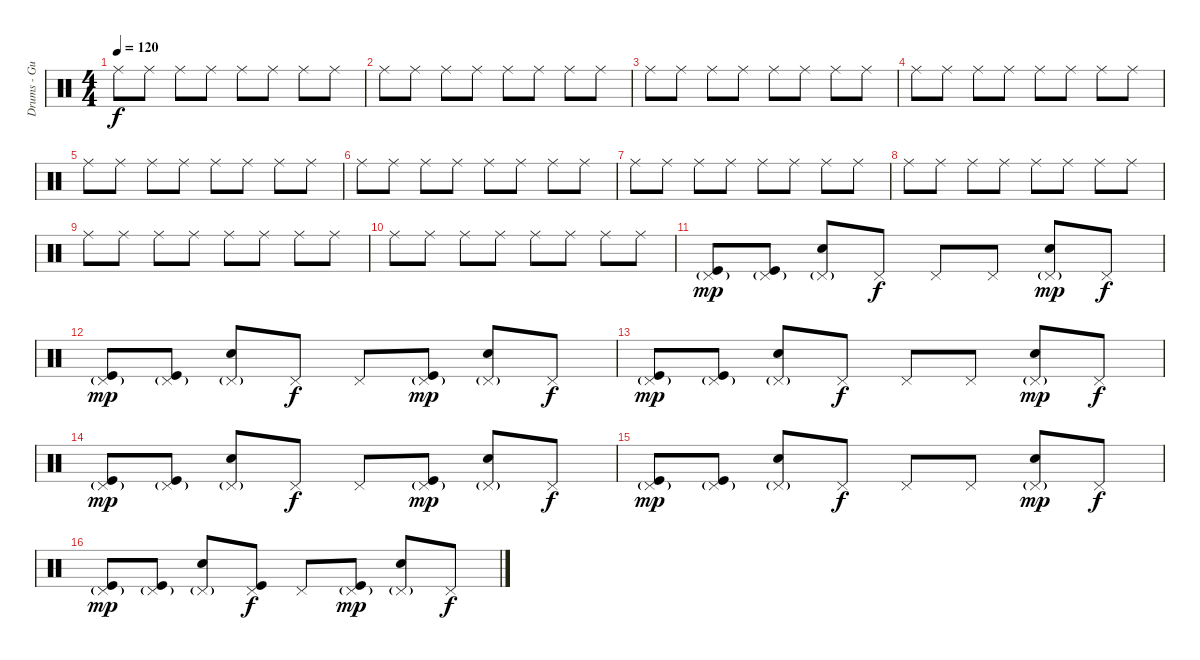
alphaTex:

\track ("Drums - Gustav" "Drums - Gu") {instrument percussion}
\staff {score}
\articulation defaults
\ts (4 4)
\tempo 120
\clef neutral
\ks c "Ride (middle)".8{dy f} "Ride (middle)".8 "Ride (middle)".8 "Ride (middle)".8 "Ride (middle)".8 "Ride (middle)".8 "Ride (middle)".8 "Ride (middle)".8
|
"Ride (middle)".8 "Ride (middle)".8 "Ride (middle)".8 "Ride (middle)".8 "Ride (middle)".8 "Ride (middle)".8 "Ride (middle)".8 "Ride (middle)".8 |
"Ride (middle)".8 "Ride (middle)".8 "Ride (middle)".8 "Ride (middle)".8 "Ride (middle)".8 "Ride (middle)".8 "Ride (middle)".8 "Ride (middle)".8 |
"Ride (middle)".8 "Ride (middle)".8 "Ride (middle)".8 "Ride (middle)".8 "Ride (middle)".8 "Ride (middle)".8 "Ride (middle)".8 "Ride (middle)".8 |
"Ride (middle)".8 "Ride (middle)".8 "Ride (middle)".8 "Ride (middle)".8 "Ride (middle)".8 "Ride (middle)".8 "Ride (middle)".8 "Ride (middle)".8 |
"Ride (middle)".8 "Ride (middle)".8 "Ride (middle)".8 "Ride (middle)".8 "Ride (middle)".8 "Ride (middle)".8 "Ride (middle)".8 "Ride (middle)".8 |
"Ride (middle)".8 "Ride (middle)".8 "Ride (middle)".8 "Ride (middle)".8 "Ride (middle)".8 "Ride (middle)".8 "Ride (middle)".8 "Ride (middle)".8 |
"Ride (middle)".8 "Ride (middle)".8 "Ride (middle)".8 "Ride (middle)".8 "Ride (middle)".8 "Ride (middle)".8 "Ride (middle)".8 "Ride (middle)".8 |
"Ride (middle)".8 "Ride (middle)".8 "Ride (middle)".8 "Ride (middle)".8 "Ride (middle)".8 "Ride (middle)".8 "Ride (middle)".8 "Ride (middle)".8 |
"Ride (middle)".8 "Ride (middle)".8 "Ride (middle)".8 "Ride (middle)".8 "Ride (middle)".8 "Ride (middle)".8 "Ride (middle)".8 "Ride (middle)".8 |
("Kick (hit)" "Pedal Hi-Hat (hit)"{g}).8{dy mp volume 11} ("Kick (hit)" "Pedal Hi-Hat (hit)"{g}).8 ("Pedal Hi-Hat (hit)"{g} "Snare (hit) 2").8 "Pedal Hi-Hat (hit)".8{dy f} "Pedal Hi-Hat (hit)".8 "Pedal Hi-Hat (hit)".8 ("Pedal Hi-Hat (hit)"{g} "Snare (hit) 2").8{dy mp} "Pedal Hi-Hat (hit)".8{dy f} |
("Kick (hit)" "Pedal Hi-Hat (hit)"{g}).8{dy mp} ("Kick (hit)" "Pedal Hi-Hat (hit)"{g}).8 ("Pedal Hi-Hat (hit)"{g} "Snare (hit) 2").8 "Pedal Hi-Hat (hit)".8{dy f} "Pedal Hi-Hat (hit)".8 ("Kick (hit)" "Pedal Hi-Hat (hit)"{g}).8{dy mp} ("Pedal Hi-Hat (hit)"{g} "Snare (hit) 2").8 "Pedal Hi-Hat (hit)".8{dy f} |
("Kick (hit)" "Pedal Hi-Hat (hit)"{g}).8{dy mp} ("Kick (hit)" "Pedal Hi-Hat (hit)"{g}).8 ("Pedal Hi-Hat (hit)"{g} "Snare (hit) 2").8 "Pedal Hi-Hat (hit)".8{dy f} "Pedal Hi-Hat (hit)".8 "Pedal Hi-Hat (hit)".8 ("Pedal Hi-Hat (hit)"{g} "Snare (hit) 2").8{dy mp} "Pedal Hi-Hat (hit)".8{dy f} |
("Kick (hit)" "Pedal Hi-Hat (hit)"{g}).8{dy mp} ("Kick (hit)" "Pedal Hi-Hat (hit)"{g}).8 ("Pedal Hi-Hat (hit)"{g} "Snare (hit) 2").8 "Pedal Hi-Hat (hit)".8{dy f} "Pedal Hi-Hat (hit)".8 ("Kick (hit)" "Pedal Hi-Hat (hit)"{g}).8{dy mp} ("Pedal Hi-Hat (hit)"{g} "Snare (hit) 2").8 "Pedal Hi-Hat (hit)".8{dy f} |
("Kick (hit)" "Pedal Hi-Hat (hit)"{g}).8{dy mp} ("Kick (hit)" "Pedal Hi-Hat (hit)"{g}).8 ("Pedal Hi-Hat (hit)"{g} "Snare (hit) 2").8 "Pedal Hi-Hat (hit)".8{dy f} "Pedal Hi-Hat (hit)".8 "Pedal Hi-Hat (hit)".8 ("Pedal Hi-Hat (hit)"{g} "Snare (hit) 2").8{dy mp} "Pedal Hi-Hat (hit)".8{dy f} |
("Kick (hit)" "Pedal Hi-Hat (hit)"{g}).8{dy mp} ("Kick (hit)" "Pedal Hi-Hat (hit)"{g}).8 ("Pedal Hi-Hat (hit)"{g} "Snare (hit) 2").8 ("Kick (hit)" "Pedal Hi-Hat (hit)").8{dy f} "Pedal Hi-Hat (hit)".8 ("Kick (hit)" "Pedal Hi-Hat (hit)"{g}).8{dy mp} ("Pedal Hi-Hat (hit)"{g} "Snare (hit) 2").8 "Pedal Hi-Hat (hit)".8{dy f}
